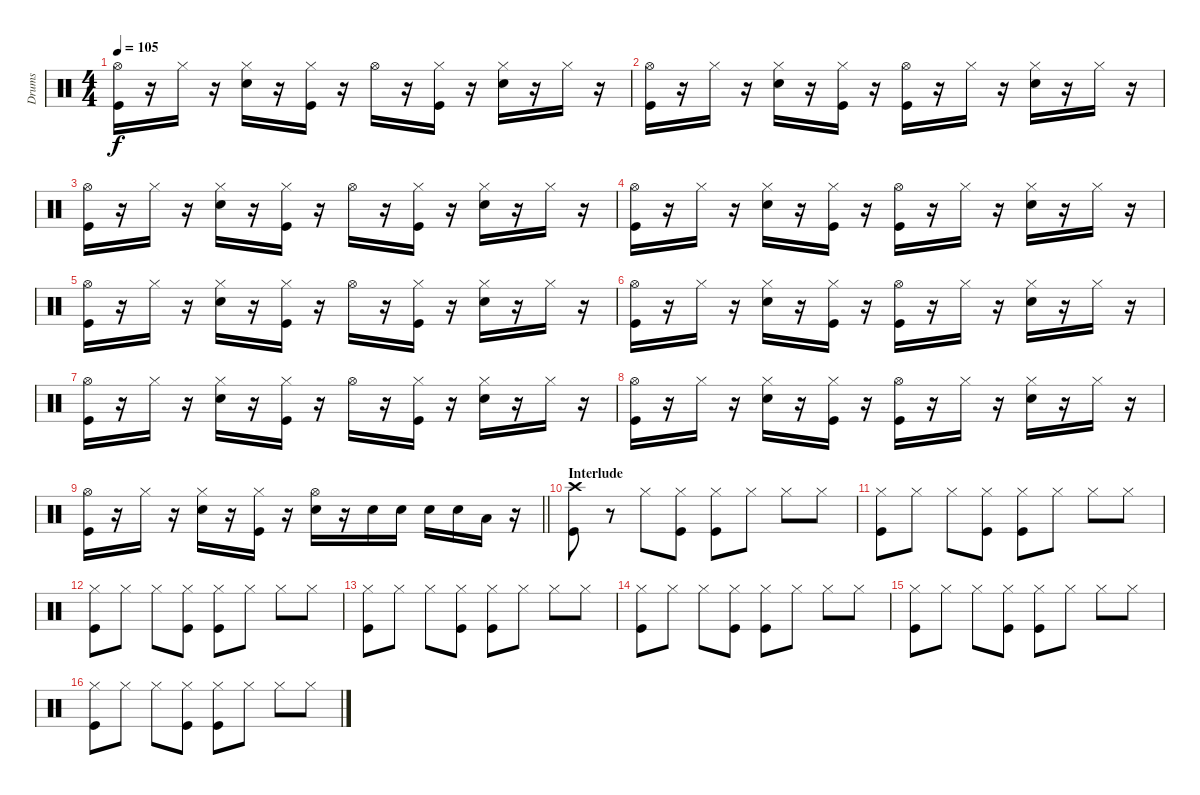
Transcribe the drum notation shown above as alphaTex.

\track ("Drums" "Drums") {instrument percussion}
\staff {score}
\articulation defaults
\ts (4 4)
\tempo 105
\clef neutral
\ks c
("Hi-Hat (open)" "Kick (hit)").16{dy f} r.16 "Hi-Hat (closed)".16 r.16 ("Hi-Hat (closed)" "Snare (hit) 2").16 r.16 ("Hi-Hat (closed)" "Kick (hit)").16 r.16 "Hi-Hat (open)".16 r.16 ("Hi-Hat (closed)" "Kick (hit)").16 r.16 ("Hi-Hat (closed)" "Snare (hit) 2").16 r.16 "Hi-Hat (closed)".16 r.16 |
("Hi-Hat (open)" "Kick (hit)").16 r.16 "Hi-Hat (closed)".16 r.16 ("Hi-Hat (closed)" "Snare (hit) 2").16 r.16 ("Hi-Hat (closed)" "Kick (hit)").16 r.16 ("Hi-Hat (open)" "Kick (hit)").16 r.16 "Hi-Hat (closed)".16 r.16 ("Hi-Hat (closed)" "Snare (hit) 2").16 r.16 "Hi-Hat (closed)".16 r.16 |
("Hi-Hat (open)" "Kick (hit)").16 r.16 "Hi-Hat (closed)".16 r.16 ("Hi-Hat (closed)" "Snare (hit) 2").16 r.16 ("Hi-Hat (closed)" "Kick (hit)").16 r.16 "Hi-Hat (open)".16 r.16 ("Hi-Hat (closed)" "Kick (hit)").16 r.16 ("Hi-Hat (closed)" "Snare (hit) 2").16 r.16 "Hi-Hat (closed)".16 r.16 |
("Hi-Hat (open)" "Kick (hit)").16 r.16 "Hi-Hat (closed)".16 r.16 ("Hi-Hat (closed)" "Snare (hit) 2").16 r.16 ("Hi-Hat (closed)" "Kick (hit)").16 r.16 ("Hi-Hat (open)" "Kick (hit)").16 r.16 "Hi-Hat (closed)".16 r.16 ("Hi-Hat (closed)" "Snare (hit) 2").16 r.16 "Hi-Hat (closed)".16 r.16 |
("Hi-Hat (open)" "Kick (hit)").16 r.16 "Hi-Hat (closed)".16 r.16 ("Hi-Hat (closed)" "Snare (hit) 2").16 r.16 ("Hi-Hat (closed)" "Kick (hit)").16 r.16 "Hi-Hat (open)".16 r.16 ("Hi-Hat (closed)" "Kick (hit)").16 r.16 ("Hi-Hat (closed)" "Snare (hit) 2").16 r.16 "Hi-Hat (closed)".16 r.16 |
("Hi-Hat (open)" "Kick (hit)").16 r.16 "Hi-Hat (closed)".16 r.16 ("Hi-Hat (closed)" "Snare (hit) 2").16 r.16 ("Hi-Hat (closed)" "Kick (hit)").16 r.16 ("Hi-Hat (open)" "Kick (hit)").16 r.16 "Hi-Hat (closed)".16 r.16 ("Hi-Hat (closed)" "Snare (hit) 2").16 r.16 "Hi-Hat (closed)".16 r.16 |
("Hi-Hat (open)" "Kick (hit)").16 r.16 "Hi-Hat (closed)".16 r.16 ("Hi-Hat (closed)" "Snare (hit) 2").16 r.16 ("Hi-Hat (closed)" "Kick (hit)").16 r.16 "Hi-Hat (open)".16 r.16 ("Hi-Hat (closed)" "Kick (hit)").16 r.16 ("Hi-Hat (closed)" "Snare (hit) 2").16 r.16 "Hi-Hat (closed)".16 r.16 |
("Hi-Hat (open)" "Kick (hit)").16 r.16 "Hi-Hat (closed)".16 r.16 ("Hi-Hat (closed)" "Snare (hit) 2").16 r.16 ("Hi-Hat (closed)" "Kick (hit)").16 r.16 ("Hi-Hat (open)" "Kick (hit)").16 r.16 "Hi-Hat (closed)".16 r.16 ("Hi-Hat (closed)" "Snare (hit) 2").16 r.16 "Hi-Hat (closed)".16 r.16 |
\barLineRight lightlight
("Hi-Hat (open)" "Kick (hit)").16 r.16 "Hi-Hat (closed)".16 r.16 ("Hi-Hat (closed)" "Snare (hit) 2").16 r.16 ("Hi-Hat (closed)" "Kick (hit)").16 r.16 ("Hi-Hat (open)" "Snare (hit) 2").16 r.16 "Snare (hit) 2".16 "Snare (hit) 2".16 "Snare (hit) 2".16 "Snare (hit) 2".16 "Low Tom (hit)".16 r.16 |
\section ("" "Interlude")
("Crash high (hit)" "Kick (hit)").8 r.8 "Hi-Hat (closed)".8 ("Hi-Hat (closed)" "Kick (hit)").8 ("Hi-Hat (closed)" "Kick (hit)").8 "Hi-Hat (closed)".8 "Hi-Hat (closed)".8 "Hi-Hat (closed)".8 |
("Hi-Hat (closed)" "Kick (hit)").8 "Hi-Hat (closed)".8 "Hi-Hat (closed)".8 ("Hi-Hat (closed)" "Kick (hit)").8 ("Hi-Hat (closed)" "Kick (hit)").8 "Hi-Hat (closed)".8 "Hi-Hat (closed)".8 "Hi-Hat (closed)".8 |
("Hi-Hat (closed)" "Kick (hit)").8 "Hi-Hat (closed)".8 "Hi-Hat (closed)".8 ("Hi-Hat (closed)" "Kick (hit)").8 ("Hi-Hat (closed)" "Kick (hit)").8 "Hi-Hat (closed)".8 "Hi-Hat (closed)".8 "Hi-Hat (closed)".8 |
("Hi-Hat (closed)" "Kick (hit)").8 "Hi-Hat (closed)".8 "Hi-Hat (closed)".8 ("Hi-Hat (closed)" "Kick (hit)").8 ("Hi-Hat (closed)" "Kick (hit)").8 "Hi-Hat (closed)".8 "Hi-Hat (closed)".8 "Hi-Hat (closed)".8 |
("Hi-Hat (closed)" "Kick (hit)").8 "Hi-Hat (closed)".8 "Hi-Hat (closed)".8 ("Hi-Hat (closed)" "Kick (hit)").8 ("Hi-Hat (closed)" "Kick (hit)").8 "Hi-Hat (closed)".8 "Hi-Hat (closed)".8 "Hi-Hat (closed)".8 |
("Hi-Hat (closed)" "Kick (hit)").8 "Hi-Hat (closed)".8 "Hi-Hat (closed)".8 ("Hi-Hat (closed)" "Kick (hit)").8 ("Hi-Hat (closed)" "Kick (hit)").8 "Hi-Hat (closed)".8 "Hi-Hat (closed)".8 "Hi-Hat (closed)".8 |
("Hi-Hat (closed)" "Kick (hit)").8 "Hi-Hat (closed)".8 "Hi-Hat (closed)".8 ("Hi-Hat (closed)" "Kick (hit)").8 ("Hi-Hat (closed)" "Kick (hit)").8 "Hi-Hat (closed)".8 "Hi-Hat (closed)".8 "Hi-Hat (closed)".8
